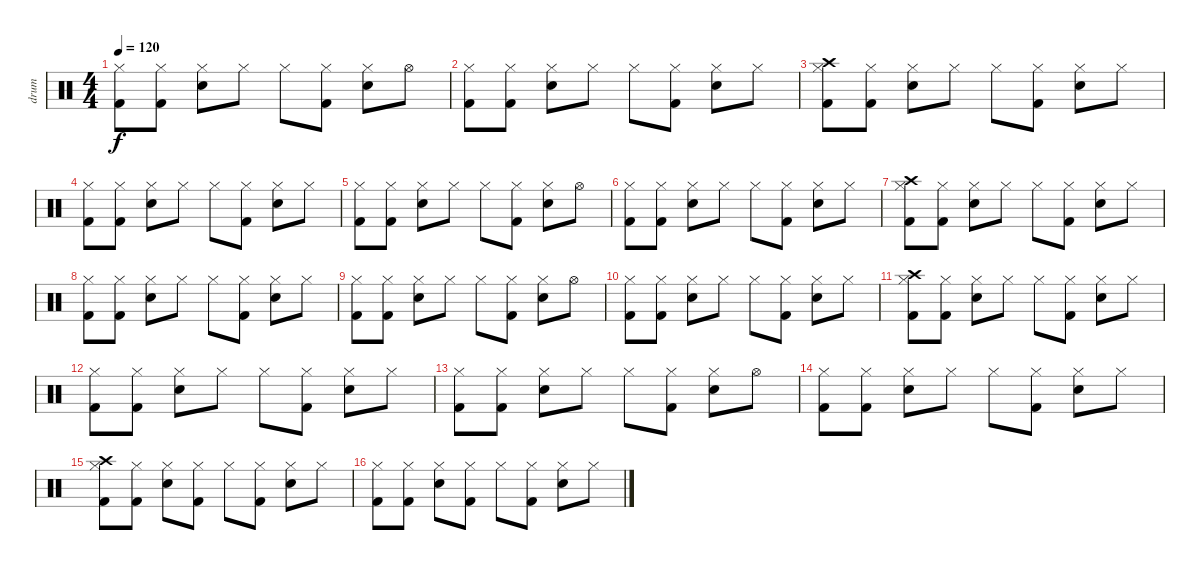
\track ("drum" "drum") {instrument percussion}
\staff {score}
\articulation defaults
\ts (4 4)
\tempo 120
\clef neutral
\ks c
("Hi-Hat (closed)" "Kick (hit) 2").8{dy f} ("Hi-Hat (closed)" "Kick (hit) 2").8 ("Hi-Hat (closed)" "Electric Snare (hit)").8 "Hi-Hat (closed)".8 "Hi-Hat (closed)".8 ("Hi-Hat (closed)" "Kick (hit) 2").8 ("Hi-Hat (closed)" "Electric Snare (hit)").8 "Hi-Hat (open)".8 |
("Hi-Hat (closed)" "Kick (hit) 2").8 ("Hi-Hat (closed)" "Kick (hit) 2").8 ("Hi-Hat (closed)" "Electric Snare (hit)").8 "Hi-Hat (closed)".8 "Hi-Hat (closed)".8 ("Hi-Hat (closed)" "Kick (hit) 2").8 ("Hi-Hat (closed)" "Electric Snare (hit)").8 "Hi-Hat (closed)".8 |
("Crash high (hit)" "Hi-Hat (closed)" "Kick (hit) 2").8 ("Hi-Hat (closed)" "Kick (hit) 2").8 ("Hi-Hat (closed)" "Electric Snare (hit)").8 "Hi-Hat (closed)".8 "Hi-Hat (closed)".8 ("Hi-Hat (closed)" "Kick (hit) 2").8 ("Hi-Hat (closed)" "Electric Snare (hit)").8 "Hi-Hat (closed)".8 |
("Hi-Hat (closed)" "Kick (hit) 2").8 ("Hi-Hat (closed)" "Kick (hit) 2").8 ("Hi-Hat (closed)" "Electric Snare (hit)").8 "Hi-Hat (closed)".8 "Hi-Hat (closed)".8 ("Hi-Hat (closed)" "Kick (hit) 2").8 ("Hi-Hat (closed)" "Electric Snare (hit)").8 "Hi-Hat (closed)".8 |
("Hi-Hat (closed)" "Kick (hit) 2").8 ("Hi-Hat (closed)" "Kick (hit) 2").8 ("Hi-Hat (closed)" "Electric Snare (hit)").8 "Hi-Hat (closed)".8 "Hi-Hat (closed)".8 ("Hi-Hat (closed)" "Kick (hit) 2").8 ("Hi-Hat (closed)" "Electric Snare (hit)").8 "Hi-Hat (open)".8 |
("Hi-Hat (closed)" "Kick (hit) 2").8 ("Hi-Hat (closed)" "Kick (hit) 2").8 ("Hi-Hat (closed)" "Electric Snare (hit)").8 "Hi-Hat (closed)".8 "Hi-Hat (closed)".8 ("Hi-Hat (closed)" "Kick (hit) 2").8 ("Hi-Hat (closed)" "Electric Snare (hit)").8 "Hi-Hat (closed)".8 |
("Crash high (hit)" "Hi-Hat (closed)" "Kick (hit) 2").8 ("Hi-Hat (closed)" "Kick (hit) 2").8 ("Hi-Hat (closed)" "Electric Snare (hit)").8 "Hi-Hat (closed)".8 "Hi-Hat (closed)".8 ("Hi-Hat (closed)" "Kick (hit) 2").8 ("Hi-Hat (closed)" "Electric Snare (hit)").8 "Hi-Hat (closed)".8 |
("Hi-Hat (closed)" "Kick (hit) 2").8 ("Hi-Hat (closed)" "Kick (hit) 2").8 ("Hi-Hat (closed)" "Electric Snare (hit)").8 "Hi-Hat (closed)".8 "Hi-Hat (closed)".8 ("Hi-Hat (closed)" "Kick (hit) 2").8 ("Hi-Hat (closed)" "Electric Snare (hit)").8 "Hi-Hat (closed)".8 |
("Hi-Hat (closed)" "Kick (hit) 2").8 ("Hi-Hat (closed)" "Kick (hit) 2").8 ("Hi-Hat (closed)" "Electric Snare (hit)").8 "Hi-Hat (closed)".8 "Hi-Hat (closed)".8 ("Hi-Hat (closed)" "Kick (hit) 2").8 ("Hi-Hat (closed)" "Electric Snare (hit)").8 "Hi-Hat (open)".8 |
("Hi-Hat (closed)" "Kick (hit) 2").8 ("Hi-Hat (closed)" "Kick (hit) 2").8 ("Hi-Hat (closed)" "Electric Snare (hit)").8 "Hi-Hat (closed)".8 "Hi-Hat (closed)".8 ("Hi-Hat (closed)" "Kick (hit) 2").8 ("Hi-Hat (closed)" "Electric Snare (hit)").8 "Hi-Hat (closed)".8 |
("Crash high (hit)" "Hi-Hat (closed)" "Kick (hit) 2").8 ("Hi-Hat (closed)" "Kick (hit) 2").8 ("Hi-Hat (closed)" "Electric Snare (hit)").8 "Hi-Hat (closed)".8 "Hi-Hat (closed)".8 ("Hi-Hat (closed)" "Kick (hit) 2").8 ("Hi-Hat (closed)" "Electric Snare (hit)").8 "Hi-Hat (closed)".8 |
("Hi-Hat (closed)" "Kick (hit) 2").8 ("Hi-Hat (closed)" "Kick (hit) 2").8 ("Hi-Hat (closed)" "Electric Snare (hit)").8 "Hi-Hat (closed)".8 "Hi-Hat (closed)".8 ("Hi-Hat (closed)" "Kick (hit) 2").8 ("Hi-Hat (closed)" "Electric Snare (hit)").8 "Hi-Hat (closed)".8 |
("Hi-Hat (closed)" "Kick (hit) 2").8 ("Hi-Hat (closed)" "Kick (hit) 2").8 ("Hi-Hat (closed)" "Electric Snare (hit)").8 "Hi-Hat (closed)".8 "Hi-Hat (closed)".8 ("Hi-Hat (closed)" "Kick (hit) 2").8 ("Hi-Hat (closed)" "Electric Snare (hit)").8 "Hi-Hat (open)".8 |
("Hi-Hat (closed)" "Kick (hit) 2").8 ("Hi-Hat (closed)" "Kick (hit) 2").8 ("Hi-Hat (closed)" "Electric Snare (hit)").8 "Hi-Hat (closed)".8 "Hi-Hat (closed)".8 ("Hi-Hat (closed)" "Kick (hit) 2").8 ("Hi-Hat (closed)" "Electric Snare (hit)").8 "Hi-Hat (closed)".8 |
("Crash high (hit)" "Hi-Hat (closed)" "Kick (hit) 2").8 ("Hi-Hat (closed)" "Kick (hit) 2").8 ("Hi-Hat (closed)" "Electric Snare (hit)").8 ("Hi-Hat (closed)" "Kick (hit) 2").8 "Hi-Hat (closed)".8 ("Hi-Hat (closed)" "Kick (hit) 2").8 ("Hi-Hat (closed)" "Electric Snare (hit)").8 "Hi-Hat (closed)".8 |
("Hi-Hat (closed)" "Kick (hit) 2").8 ("Hi-Hat (closed)" "Kick (hit) 2").8 ("Hi-Hat (closed)" "Electric Snare (hit)").8 ("Hi-Hat (closed)" "Kick (hit) 2").8 "Hi-Hat (closed)".8 ("Hi-Hat (closed)" "Kick (hit) 2").8 ("Hi-Hat (closed)" "Electric Snare (hit)").8 "Hi-Hat (closed)".8
